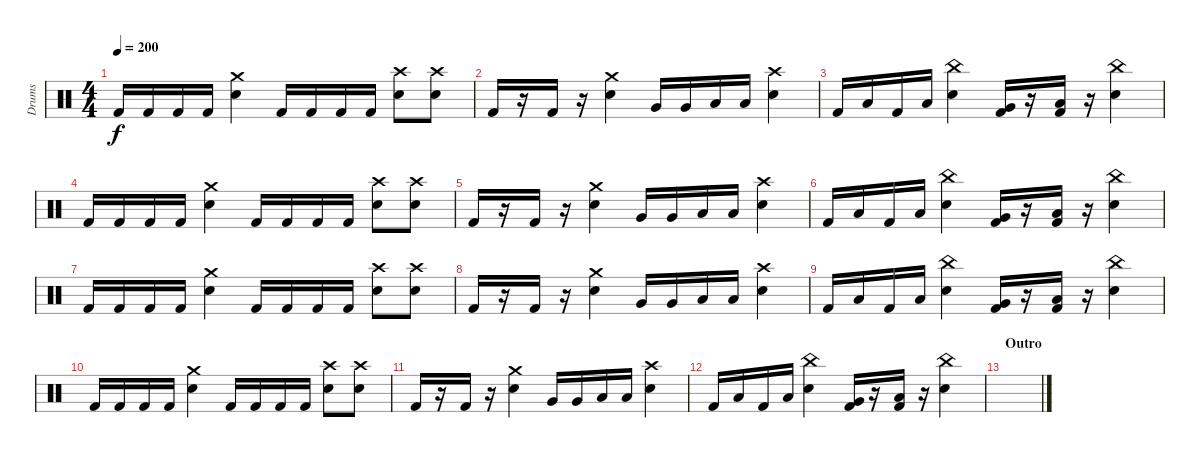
\track ("Drums" "Drums") {instrument percussion}
\staff {score}
\articulation defaults
\ts (4 4)
\tempo 200
\clef neutral
\ks c "Kick (hit) 2".16{dy f} "Kick (hit) 2".16 "Kick (hit) 2".16 "Kick (hit) 2".16
("Crash medium (hit)" "Electric Snare (hit)").4 "Kick (hit) 2".16 "Kick (hit) 2".16 "Kick (hit) 2".16 "Kick (hit) 2".16 ("Crash high (hit)" "Electric Snare (hit)").8 ("Crash high (hit)" "Electric Snare (hit)").8 |
"Kick (hit) 2".16 r.16 "Kick (hit) 2".16 r.16 ("Crash medium (hit)" "Electric Snare (hit)").4 "Very Low Tom (hit)".16 "Very Low Tom (hit)".16 "Low Floor Tom (hit)".16 "Low Floor Tom (hit)".16 ("Crash high (hit)" "Electric Snare (hit)").4 |
"Kick (hit) 2".16 "Low Floor Tom (hit)".16 "Kick (hit) 2".16 "Low Floor Tom (hit)".16 ("China (hit)" "Electric Snare (hit)").4 ("Very Low Tom (hit)" "Kick (hit) 2").16 r.16 ("Low Floor Tom (hit)" "Kick (hit) 2").16 r.16 ("China (hit)" "Electric Snare (hit)").4 |
"Kick (hit) 2".16 "Kick (hit) 2".16 "Kick (hit) 2".16 "Kick (hit) 2".16 ("Crash medium (hit)" "Electric Snare (hit)").4 "Kick (hit) 2".16 "Kick (hit) 2".16 "Kick (hit) 2".16 "Kick (hit) 2".16 ("Crash high (hit)" "Electric Snare (hit)").8 ("Crash high (hit)" "Electric Snare (hit)").8 |
"Kick (hit) 2".16 r.16 "Kick (hit) 2".16 r.16 ("Crash medium (hit)" "Electric Snare (hit)").4 "Very Low Tom (hit)".16 "Very Low Tom (hit)".16 "Low Floor Tom (hit)".16 "Low Floor Tom (hit)".16 ("Crash high (hit)" "Electric Snare (hit)").4 |
"Kick (hit) 2".16 "Low Floor Tom (hit)".16 "Kick (hit) 2".16 "Low Floor Tom (hit)".16 ("China (hit)" "Electric Snare (hit)").4 ("Very Low Tom (hit)" "Kick (hit) 2").16 r.16 ("Low Floor Tom (hit)" "Kick (hit) 2").16 r.16 ("China (hit)" "Electric Snare (hit)").4 |
"Kick (hit) 2".16 "Kick (hit) 2".16 "Kick (hit) 2".16 "Kick (hit) 2".16 ("Crash medium (hit)" "Electric Snare (hit)").4 "Kick (hit) 2".16 "Kick (hit) 2".16 "Kick (hit) 2".16 "Kick (hit) 2".16 ("Crash high (hit)" "Electric Snare (hit)").8 ("Crash high (hit)" "Electric Snare (hit)").8 |
"Kick (hit) 2".16 r.16 "Kick (hit) 2".16 r.16 ("Crash medium (hit)" "Electric Snare (hit)").4 "Very Low Tom (hit)".16 "Very Low Tom (hit)".16 "Low Floor Tom (hit)".16 "Low Floor Tom (hit)".16 ("Crash high (hit)" "Electric Snare (hit)").4 |
"Kick (hit) 2".16 "Low Floor Tom (hit)".16 "Kick (hit) 2".16 "Low Floor Tom (hit)".16 ("China (hit)" "Electric Snare (hit)").4 ("Very Low Tom (hit)" "Kick (hit) 2").16 r.16 ("Low Floor Tom (hit)" "Kick (hit) 2").16 r.16 ("China (hit)" "Electric Snare (hit)").4 |
"Kick (hit) 2".16{volume 0} "Kick (hit) 2".16 "Kick (hit) 2".16 "Kick (hit) 2".16 ("Crash medium (hit)" "Electric Snare (hit)").4 "Kick (hit) 2".16 "Kick (hit) 2".16 "Kick (hit) 2".16 "Kick (hit) 2".16 ("Crash high (hit)" "Electric Snare (hit)").8 ("Crash high (hit)" "Electric Snare (hit)").8 |
"Kick (hit) 2".16 r.16 "Kick (hit) 2".16 r.16 ("Crash medium (hit)" "Electric Snare (hit)").4 "Very Low Tom (hit)".16 "Very Low Tom (hit)".16 "Low Floor Tom (hit)".16 "Low Floor Tom (hit)".16 ("Crash high (hit)" "Electric Snare (hit)").4 |
"Kick (hit) 2".16 "Low Floor Tom (hit)".16 "Kick (hit) 2".16 "Low Floor Tom (hit)".16 ("China (hit)" "Electric Snare (hit)").4 ("Very Low Tom (hit)" "Kick (hit) 2").16 r.16 ("Low Floor Tom (hit)" "Kick (hit) 2").16 r.16 ("China (hit)" "Electric Snare (hit)").4 |
\section ("" "Outro")
